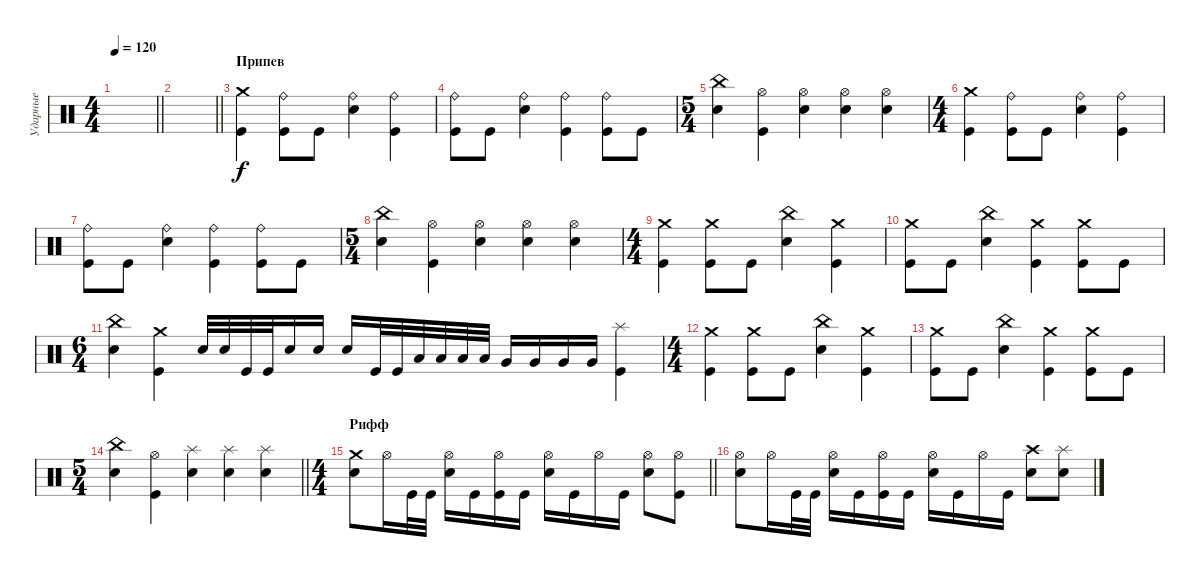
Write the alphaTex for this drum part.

\track ("Ударные" "Ударные") {instrument percussion}
\staff {score}
\articulation defaults
\ts (4 4)
\tempo 120
\clef neutral
\barLineRight lightlight
\ks c
|
\barLineRight lightlight
|
\section ("" "Припев")
("Crash medium (hit)" "Kick (hit)").4 ("Ride (bell)" "Kick (hit)").8 "Kick (hit)".8 ("Ride (bell)" "Electric Snare (hit)").4 ("Ride (bell)" "Kick (hit)").4 |
("Ride (bell)" "Kick (hit)").8 "Kick (hit)".8 ("Ride (bell)" "Electric Snare (hit)").4 ("Ride (bell)" "Kick (hit)").4 ("Ride (bell)" "Kick (hit)").8 "Kick (hit)".8 |
\ts (5 4)
("China (hit)" "Electric Snare (hit)").4 ("Hi-Hat (open)" "Kick (hit)").4 ("Hi-Hat (open)" "Electric Snare (hit)").4 ("Hi-Hat (open)" "Electric Snare (hit)").4 ("Hi-Hat (open)" "Electric Snare (hit)").4 |
\ts (4 4)
("Crash medium (hit)" "Kick (hit)").4 ("Ride (bell)" "Kick (hit)").8 "Kick (hit)".8 ("Ride (bell)" "Electric Snare (hit)").4 ("Ride (bell)" "Kick (hit)").4 |
("Ride (bell)" "Kick (hit)").8 "Kick (hit)".8 ("Ride (bell)" "Electric Snare (hit)").4 ("Ride (bell)" "Kick (hit)").4 ("Ride (bell)" "Kick (hit)").8 "Kick (hit)".8 |
\ts (5 4)
("China (hit)" "Electric Snare (hit)").4 ("Hi-Hat (open)" "Kick (hit)").4 ("Hi-Hat (open)" "Electric Snare (hit)").4 ("Hi-Hat (open)" "Electric Snare (hit)").4 ("Hi-Hat (open)" "Electric Snare (hit)").4 |
\ts (4 4)
("Crash medium (hit)" "Kick (hit)").4 ("Crash medium (hit)" "Kick (hit)").8 "Kick (hit)".8 ("China (hit)" "Electric Snare (hit)").4 ("Crash medium (hit)" "Kick (hit)").4 |
("Crash medium (hit)" "Kick (hit)").8 "Kick (hit)".8 ("China (hit)" "Electric Snare (hit)").4 ("Crash medium (hit)" "Kick (hit)").4 ("Crash medium (hit)" "Kick (hit)").8 "Kick (hit)".8 |
\ts (6 4)
("China (hit)" "Electric Snare (hit)").4 ("Crash medium (hit)" "Kick (hit)").4 "Electric Snare (hit)".32 "Electric Snare (hit)".32 "Kick (hit)".32 "Kick (hit)".32 "Electric Snare (hit)".16 "Electric Snare (hit)".16 "Electric Snare (hit)".16 "Kick (hit)".32 "Kick (hit)".32 "Low Tom (hit)".32 "Low Tom (hit)".32 "Low Tom (hit)".32 "Low Tom (hit)".32 "Very Low Tom (hit)".16 "Very Low Tom (hit)".16 "Very Low Tom (hit)".16 "Very Low Tom (hit)".16 ("Splash (hit)" "Kick (hit)").4 |
\ts (4 4)
("Crash medium (hit)" "Kick (hit)").4 ("Crash medium (hit)" "Kick (hit)").8 "Kick (hit)".8 ("China (hit)" "Electric Snare (hit)").4 ("Crash medium (hit)" "Kick (hit)").4 |
("Crash medium (hit)" "Kick (hit)").8 "Kick (hit)".8 ("China (hit)" "Electric Snare (hit)").4 ("Crash medium (hit)" "Kick (hit)").4 ("Crash medium (hit)" "Kick (hit)").8 "Kick (hit)".8 |
\ts (5 4)
\barLineRight lightlight
("China (hit)" "Electric Snare (hit)").4 ("Hi-Hat (open)" "Kick (hit)").4 ("Splash (hit)" "Electric Snare (hit)").4 ("Splash (hit)" "Electric Snare (hit)").4 ("Splash (hit)" "Electric Snare (hit)").4 |
\ts (4 4)
\section ("" "Рифф")
\barLineRight lightlight
("Crash medium (hit)" "Electric Snare (hit)").8 "Hi-Hat (open)".16 "Kick (hit)".32 "Kick (hit)".32 ("Hi-Hat (open)" "Electric Snare (hit)").16 "Kick (hit)".16 ("Hi-Hat (open)" "Kick (hit)").16 "Kick (hit)".16 ("Hi-Hat (open)" "Electric Snare (hit)").16 "Kick (hit)".16 "Hi-Hat (open)".16 "Kick (hit)".16 ("Hi-Hat (open)" "Electric Snare (hit)").8 ("Hi-Hat (open)" "Kick (hit)").8 |
("Hi-Hat (open)" "Electric Snare (hit)").8 "Hi-Hat (open)".16 "Kick (hit)".32 "Kick (hit)".32 ("Hi-Hat (open)" "Electric Snare (hit)").16 "Kick (hit)".16 ("Hi-Hat (open)" "Kick (hit)").16 "Kick (hit)".16 ("Hi-Hat (open)" "Electric Snare (hit)").16 "Kick (hit)".16 "Hi-Hat (open)".16 "Kick (hit)".16 ("Crash high (hit)" "Electric Snare (hit)").8 ("Splash (hit)" "Electric Snare (hit)").8
